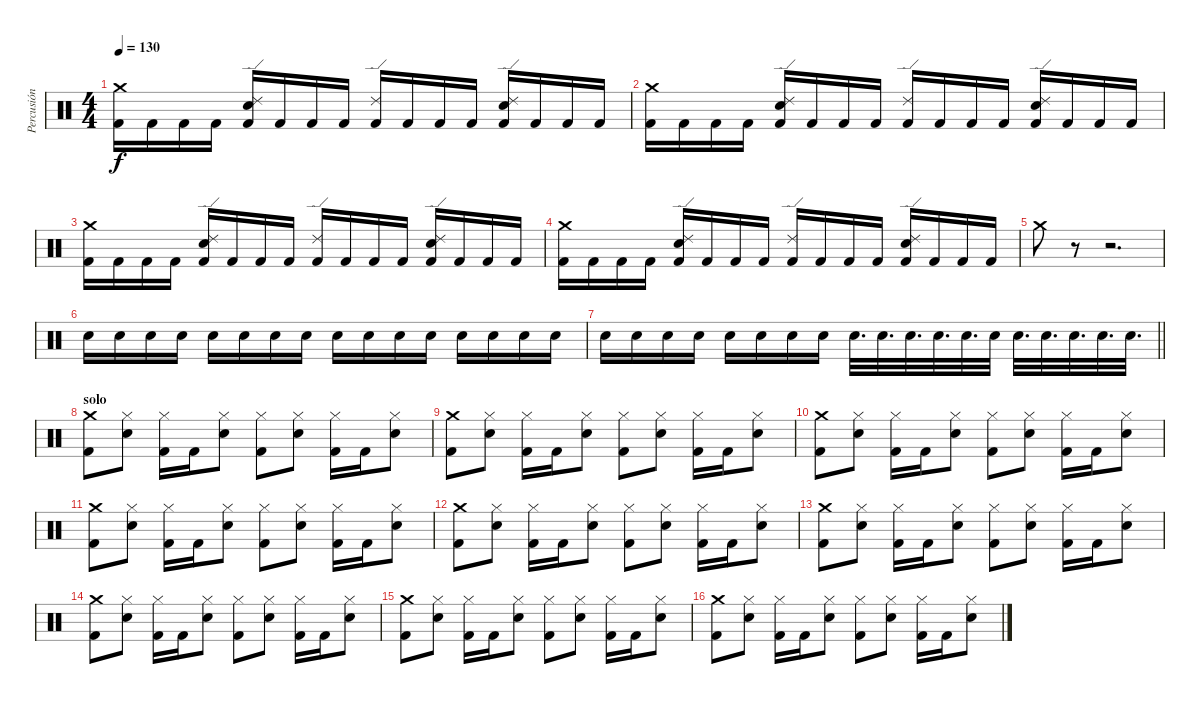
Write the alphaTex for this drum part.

\track ("Percusión" "Percusión") {instrument percussion}
\staff {score}
\articulation defaults
\ts (4 4)
\tempo 130
\clef neutral
\ks c
("Crash medium (hit)" "Kick (hit) 2").16{dy f} "Kick (hit) 2".16 "Kick (hit) 2".16 "Kick (hit) 2".16 ("Ride (edge) 2" "Electric Snare (hit)" "Kick (hit) 2").16 "Kick (hit) 2".16 "Kick (hit) 2".16 "Kick (hit) 2".16 ("Ride (edge) 2" "Kick (hit) 2").16 "Kick (hit) 2".16 "Kick (hit) 2".16 "Kick (hit) 2".16 ("Ride (edge) 2" "Electric Snare (hit)" "Kick (hit) 2").16 "Kick (hit) 2".16 "Kick (hit) 2".16 "Kick (hit) 2".16 |
("Crash medium (hit)" "Kick (hit) 2").16 "Kick (hit) 2".16 "Kick (hit) 2".16 "Kick (hit) 2".16 ("Ride (edge) 2" "Electric Snare (hit)" "Kick (hit) 2").16 "Kick (hit) 2".16 "Kick (hit) 2".16 "Kick (hit) 2".16 ("Ride (edge) 2" "Kick (hit) 2").16 "Kick (hit) 2".16 "Kick (hit) 2".16 "Kick (hit) 2".16 ("Ride (edge) 2" "Electric Snare (hit)" "Kick (hit) 2").16 "Kick (hit) 2".16 "Kick (hit) 2".16 "Kick (hit) 2".16 |
("Crash medium (hit)" "Kick (hit) 2").16 "Kick (hit) 2".16 "Kick (hit) 2".16 "Kick (hit) 2".16 ("Ride (edge) 2" "Electric Snare (hit)" "Kick (hit) 2").16 "Kick (hit) 2".16 "Kick (hit) 2".16 "Kick (hit) 2".16 ("Ride (edge) 2" "Kick (hit) 2").16 "Kick (hit) 2".16 "Kick (hit) 2".16 "Kick (hit) 2".16 ("Ride (edge) 2" "Electric Snare (hit)" "Kick (hit) 2").16 "Kick (hit) 2".16 "Kick (hit) 2".16 "Kick (hit) 2".16 |
("Crash medium (hit)" "Kick (hit) 2").16 "Kick (hit) 2".16 "Kick (hit) 2".16 "Kick (hit) 2".16 ("Ride (edge) 2" "Electric Snare (hit)" "Kick (hit) 2").16 "Kick (hit) 2".16 "Kick (hit) 2".16 "Kick (hit) 2".16 ("Ride (edge) 2" "Kick (hit) 2").16 "Kick (hit) 2".16 "Kick (hit) 2".16 "Kick (hit) 2".16 ("Ride (edge) 2" "Electric Snare (hit)" "Kick (hit) 2").16 "Kick (hit) 2".16 "Kick (hit) 2".16 "Kick (hit) 2".16 |
"Crash medium (hit)".8 r.8 r.2{d} |
"Electric Snare (hit)".16 "Electric Snare (hit)".16 "Electric Snare (hit)".16 "Electric Snare (hit)".16 "Electric Snare (hit)".16 "Electric Snare (hit)".16 "Electric Snare (hit)".16 "Electric Snare (hit)".16 "Electric Snare (hit)".16 "Electric Snare (hit)".16 "Electric Snare (hit)".16 "Electric Snare (hit)".16 "Electric Snare (hit)".16 "Electric Snare (hit)".16 "Electric Snare (hit)".16 "Electric Snare (hit)".16 |
\barLineRight lightlight "Electric Snare (hit)".16 "Electric Snare (hit)".16 "Electric Snare (hit)".16 "Electric Snare (hit)".16 "Electric Snare (hit)".16 "Electric Snare (hit)".16 "Electric Snare (hit)".16 "Electric Snare (hit)".16 "Electric Snare (hit)".32{d} "Electric Snare (hit)".32{d} "Electric Snare (hit)".32{d} "Electric Snare (hit)".32{d} "Electric Snare (hit)".32{d} "Electric Snare (hit)".32 "Electric Snare (hit)".32{d} "Electric Snare (hit)".32{d} "Electric Snare (hit)".32{d} "Electric Snare (hit)".32{d} "Electric Snare (hit)".32{d}
|
\section ("" "solo")
("Crash medium (hit)" "Kick (hit) 2").8 ("Hi-Hat (closed)" "Electric Snare (hit)").8 ("Hi-Hat (closed)" "Kick (hit) 2").16 "Kick (hit) 2".16 ("Hi-Hat (closed)" "Electric Snare (hit)").8 ("Hi-Hat (closed)" "Kick (hit) 2").8 ("Hi-Hat (closed)" "Electric Snare (hit)").8 ("Hi-Hat (closed)" "Kick (hit) 2").16 "Kick (hit) 2".16 ("Hi-Hat (closed)" "Electric Snare (hit)").8 |
("Crash medium (hit)" "Kick (hit) 2").8 ("Hi-Hat (closed)" "Electric Snare (hit)").8 ("Hi-Hat (closed)" "Kick (hit) 2").16 "Kick (hit) 2".16 ("Hi-Hat (closed)" "Electric Snare (hit)").8 ("Hi-Hat (closed)" "Kick (hit) 2").8 ("Hi-Hat (closed)" "Electric Snare (hit)").8 ("Hi-Hat (closed)" "Kick (hit) 2").16 "Kick (hit) 2".16 ("Hi-Hat (closed)" "Electric Snare (hit)").8 |
("Crash medium (hit)" "Kick (hit) 2").8 ("Hi-Hat (closed)" "Electric Snare (hit)").8 ("Hi-Hat (closed)" "Kick (hit) 2").16 "Kick (hit) 2".16 ("Hi-Hat (closed)" "Electric Snare (hit)").8 ("Hi-Hat (closed)" "Kick (hit) 2").8 ("Hi-Hat (closed)" "Electric Snare (hit)").8 ("Hi-Hat (closed)" "Kick (hit) 2").16 "Kick (hit) 2".16 ("Hi-Hat (closed)" "Electric Snare (hit)").8 |
("Crash medium (hit)" "Kick (hit) 2").8 ("Hi-Hat (closed)" "Electric Snare (hit)").8 ("Hi-Hat (closed)" "Kick (hit) 2").16 "Kick (hit) 2".16 ("Hi-Hat (closed)" "Electric Snare (hit)").8 ("Hi-Hat (closed)" "Kick (hit) 2").8 ("Hi-Hat (closed)" "Electric Snare (hit)").8 ("Hi-Hat (closed)" "Kick (hit) 2").16 "Kick (hit) 2".16 ("Hi-Hat (closed)" "Electric Snare (hit)").8 |
("Crash medium (hit)" "Kick (hit) 2").8 ("Hi-Hat (closed)" "Electric Snare (hit)").8 ("Hi-Hat (closed)" "Kick (hit) 2").16 "Kick (hit) 2".16 ("Hi-Hat (closed)" "Electric Snare (hit)").8 ("Hi-Hat (closed)" "Kick (hit) 2").8 ("Hi-Hat (closed)" "Electric Snare (hit)").8 ("Hi-Hat (closed)" "Kick (hit) 2").16 "Kick (hit) 2".16 ("Hi-Hat (closed)" "Electric Snare (hit)").8 |
("Crash medium (hit)" "Kick (hit) 2").8 ("Hi-Hat (closed)" "Electric Snare (hit)").8 ("Hi-Hat (closed)" "Kick (hit) 2").16 "Kick (hit) 2".16 ("Hi-Hat (closed)" "Electric Snare (hit)").8 ("Hi-Hat (closed)" "Kick (hit) 2").8 ("Hi-Hat (closed)" "Electric Snare (hit)").8 ("Hi-Hat (closed)" "Kick (hit) 2").16 "Kick (hit) 2".16 ("Hi-Hat (closed)" "Electric Snare (hit)").8 |
("Crash medium (hit)" "Kick (hit) 2").8 ("Hi-Hat (closed)" "Electric Snare (hit)").8 ("Hi-Hat (closed)" "Kick (hit) 2").16 "Kick (hit) 2".16 ("Hi-Hat (closed)" "Electric Snare (hit)").8 ("Hi-Hat (closed)" "Kick (hit) 2").8 ("Hi-Hat (closed)" "Electric Snare (hit)").8 ("Hi-Hat (closed)" "Kick (hit) 2").16 "Kick (hit) 2".16 ("Hi-Hat (closed)" "Electric Snare (hit)").8 |
("Crash medium (hit)" "Kick (hit) 2").8 ("Hi-Hat (closed)" "Electric Snare (hit)").8 ("Hi-Hat (closed)" "Kick (hit) 2").16 "Kick (hit) 2".16 ("Hi-Hat (closed)" "Electric Snare (hit)").8 ("Hi-Hat (closed)" "Kick (hit) 2").8 ("Hi-Hat (closed)" "Electric Snare (hit)").8 ("Hi-Hat (closed)" "Kick (hit) 2").16 "Kick (hit) 2".16 ("Hi-Hat (closed)" "Electric Snare (hit)").8 |
("Crash medium (hit)" "Kick (hit) 2").8 ("Hi-Hat (closed)" "Electric Snare (hit)").8 ("Hi-Hat (closed)" "Kick (hit) 2").16 "Kick (hit) 2".16 ("Hi-Hat (closed)" "Electric Snare (hit)").8 ("Hi-Hat (closed)" "Kick (hit) 2").8 ("Hi-Hat (closed)" "Electric Snare (hit)").8 ("Hi-Hat (closed)" "Kick (hit) 2").16 "Kick (hit) 2".16 ("Hi-Hat (closed)" "Electric Snare (hit)").8
